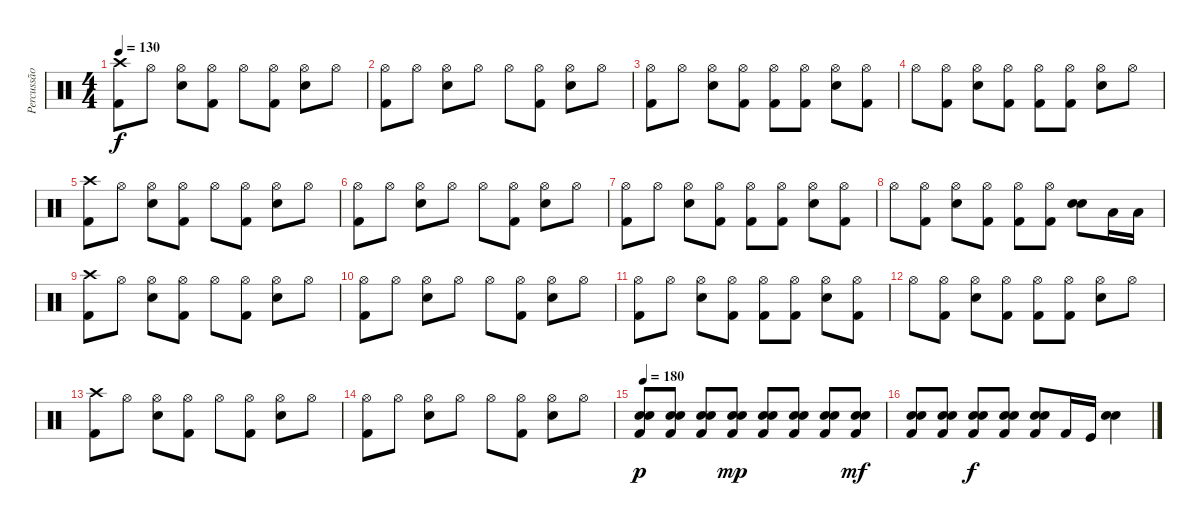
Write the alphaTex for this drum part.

\track ("Percussão" "Percussão") {instrument percussion}
\staff {score}
\articulation defaults
\ts (4 4)
\tempo 130
\clef neutral
\ks c
("Crash high (hit)" "Kick (hit) 2").8{dy f} "Hi-Hat (open)".8 ("Hi-Hat (open)" "Electric Snare (hit)").8 ("Hi-Hat (open)" "Kick (hit) 2").8 "Hi-Hat (open)".8 ("Hi-Hat (open)" "Kick (hit) 2").8 ("Hi-Hat (open)" "Electric Snare (hit)").8 "Hi-Hat (open)".8 |
("Hi-Hat (open)" "Kick (hit) 2").8 "Hi-Hat (open)".8 ("Hi-Hat (open)" "Electric Snare (hit)").8 "Hi-Hat (open)".8 "Hi-Hat (open)".8 ("Hi-Hat (open)" "Kick (hit) 2").8 ("Hi-Hat (open)" "Electric Snare (hit)").8 "Hi-Hat (open)".8 |
("Hi-Hat (open)" "Kick (hit) 2").8 "Hi-Hat (open)".8 ("Hi-Hat (open)" "Electric Snare (hit)").8 ("Hi-Hat (open)" "Kick (hit) 2").8 ("Hi-Hat (open)" "Kick (hit) 2").8 ("Hi-Hat (open)" "Kick (hit) 2").8 ("Hi-Hat (open)" "Electric Snare (hit)").8 ("Hi-Hat (open)" "Kick (hit) 2").8 |
"Hi-Hat (open)".8 ("Hi-Hat (open)" "Kick (hit) 2").8 ("Hi-Hat (open)" "Electric Snare (hit)").8 ("Hi-Hat (open)" "Kick (hit) 2").8 ("Hi-Hat (open)" "Kick (hit) 2").8 ("Hi-Hat (open)" "Kick (hit) 2").8 ("Hi-Hat (open)" "Electric Snare (hit)").8 "Hi-Hat (open)".8 |
("Crash high (hit)" "Kick (hit) 2").8 "Hi-Hat (open)".8 ("Hi-Hat (open)" "Electric Snare (hit)").8 ("Hi-Hat (open)" "Kick (hit) 2").8 "Hi-Hat (open)".8 ("Hi-Hat (open)" "Kick (hit) 2").8 ("Hi-Hat (open)" "Electric Snare (hit)").8 "Hi-Hat (open)".8 |
("Hi-Hat (open)" "Kick (hit) 2").8 "Hi-Hat (open)".8 ("Hi-Hat (open)" "Electric Snare (hit)").8 "Hi-Hat (open)".8 "Hi-Hat (open)".8 ("Hi-Hat (open)" "Kick (hit) 2").8 ("Hi-Hat (open)" "Electric Snare (hit)").8 "Hi-Hat (open)".8 |
("Hi-Hat (open)" "Kick (hit) 2").8 "Hi-Hat (open)".8 ("Hi-Hat (open)" "Electric Snare (hit)").8 ("Hi-Hat (open)" "Kick (hit) 2").8 ("Hi-Hat (open)" "Kick (hit) 2").8 ("Hi-Hat (open)" "Kick (hit) 2").8 ("Hi-Hat (open)" "Electric Snare (hit)").8 ("Hi-Hat (open)" "Kick (hit) 2").8 |
"Hi-Hat (open)".8 ("Hi-Hat (open)" "Kick (hit) 2").8 ("Hi-Hat (open)" "Electric Snare (hit)").8 ("Hi-Hat (open)" "Kick (hit) 2").8 ("Hi-Hat (open)" "Kick (hit) 2").8 ("Hi-Hat (open)" "Kick (hit) 2").8 ("Electric Snare (hit)" "Electric Snare (hit)").8{bd 240} "Low Floor Tom (hit)".16 "Low Floor Tom (hit)".16 |
("Crash high (hit)" "Kick (hit) 2").8 "Hi-Hat (open)".8 ("Hi-Hat (open)" "Electric Snare (hit)").8 ("Hi-Hat (open)" "Kick (hit) 2").8 "Hi-Hat (open)".8 ("Hi-Hat (open)" "Kick (hit) 2").8 ("Hi-Hat (open)" "Electric Snare (hit)").8 "Hi-Hat (open)".8 |
("Hi-Hat (open)" "Kick (hit) 2").8 "Hi-Hat (open)".8 ("Hi-Hat (open)" "Electric Snare (hit)").8 "Hi-Hat (open)".8 "Hi-Hat (open)".8 ("Hi-Hat (open)" "Kick (hit) 2").8 ("Hi-Hat (open)" "Electric Snare (hit)").8 "Hi-Hat (open)".8 |
("Hi-Hat (open)" "Kick (hit) 2").8 "Hi-Hat (open)".8 ("Hi-Hat (open)" "Electric Snare (hit)").8 ("Hi-Hat (open)" "Kick (hit) 2").8 ("Hi-Hat (open)" "Kick (hit) 2").8 ("Hi-Hat (open)" "Kick (hit) 2").8 ("Hi-Hat (open)" "Electric Snare (hit)").8 ("Hi-Hat (open)" "Kick (hit) 2").8 |
"Hi-Hat (open)".8 ("Hi-Hat (open)" "Kick (hit) 2").8 ("Hi-Hat (open)" "Electric Snare (hit)").8 ("Hi-Hat (open)" "Kick (hit) 2").8 ("Hi-Hat (open)" "Kick (hit) 2").8 ("Hi-Hat (open)" "Kick (hit) 2").8 ("Hi-Hat (open)" "Electric Snare (hit)").8 "Hi-Hat (open)".8 |
("Crash high (hit)" "Kick (hit) 2").8 "Hi-Hat (open)".8 ("Hi-Hat (open)" "Electric Snare (hit)").8 ("Hi-Hat (open)" "Kick (hit) 2").8 "Hi-Hat (open)".8 ("Hi-Hat (open)" "Kick (hit) 2").8 ("Hi-Hat (open)" "Electric Snare (hit)").8 "Hi-Hat (open)".8 |
("Hi-Hat (open)" "Kick (hit) 2").8 "Hi-Hat (open)".8 ("Hi-Hat (open)" "Electric Snare (hit)").8 "Hi-Hat (open)".8 "Hi-Hat (open)".8 ("Hi-Hat (open)" "Kick (hit) 2").8 ("Hi-Hat (open)" "Electric Snare (hit)").8 "Hi-Hat (open)".8 |
\tempo 180
("Electric Snare (hit)" "Electric Snare (hit)" "Kick (hit) 2").8{dy p} ("Electric Snare (hit)" "Electric Snare (hit)" "Kick (hit) 2").8 ("Electric Snare (hit)" "Electric Snare (hit)" "Kick (hit) 2").8 ("Electric Snare (hit)" "Electric Snare (hit)" "Kick (hit) 2").8{dy mp} ("Electric Snare (hit)" "Electric Snare (hit)" "Kick (hit) 2").8 ("Electric Snare (hit)" "Electric Snare (hit)" "Kick (hit) 2").8 ("Electric Snare (hit)" "Electric Snare (hit)" "Kick (hit) 2").8 ("Electric Snare (hit)" "Electric Snare (hit)" "Kick (hit) 2").8{dy mf} |
("Electric Snare (hit)" "Electric Snare (hit)" "Kick (hit) 2").8 ("Electric Snare (hit)" "Electric Snare (hit)" "Kick (hit) 2").8 ("Electric Snare (hit)" "Electric Snare (hit)" "Kick (hit) 2").8{dy f} ("Electric Snare (hit)" "Electric Snare (hit)" "Kick (hit) 2").8 ("Electric Snare (hit)" "Electric Snare (hit)" "Kick (hit) 2").8 "Kick (hit) 2".16 "Kick (hit)".16 ("Electric Snare (hit)" "Electric Snare (hit)").4
